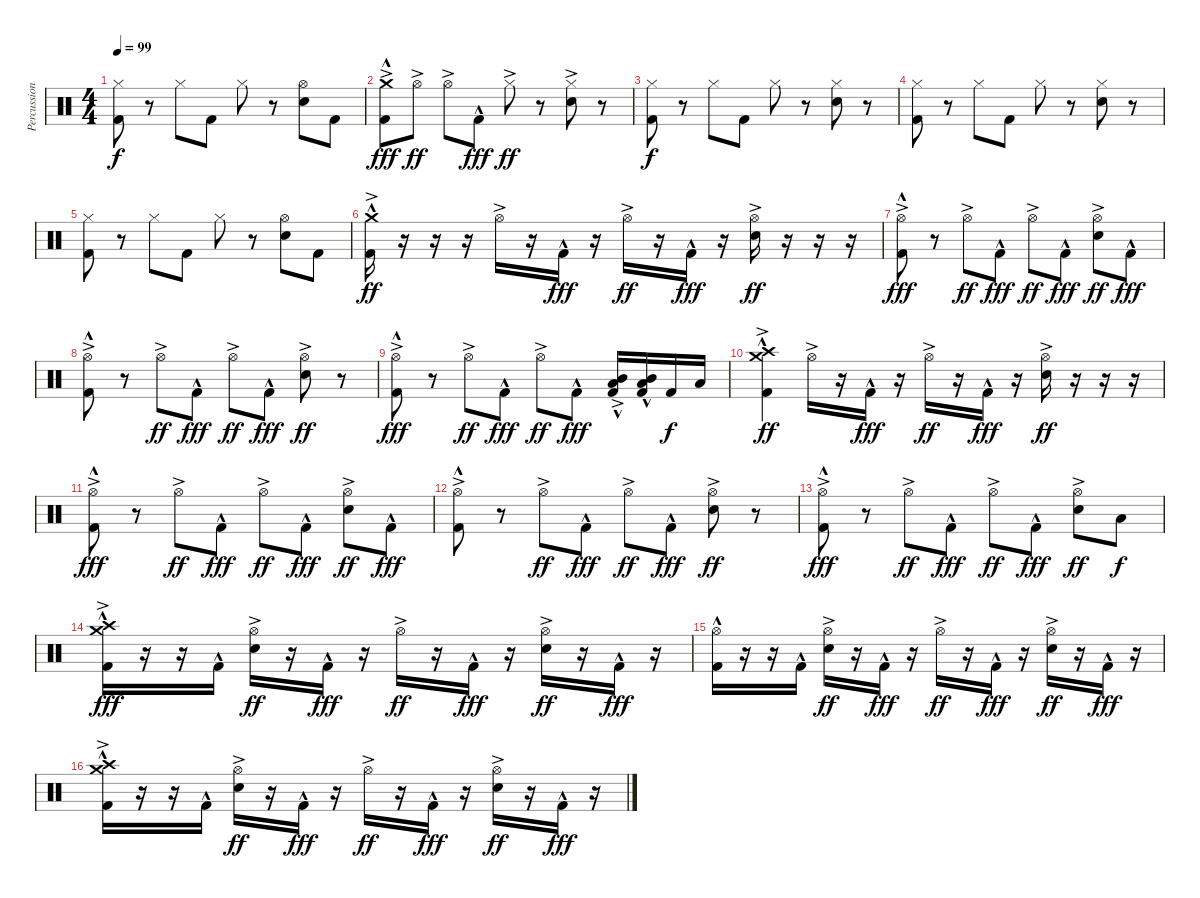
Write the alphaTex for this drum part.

\track ("Percussion" "Percussion") {instrument percussion}
\staff {score}
\articulation defaults
\ts (4 4)
\tempo 99
\clef neutral
\ks c
("Hi-Hat (closed)" "Kick (hit) 2").8{dy f} r.8 "Hi-Hat (closed)".8 "Kick (hit) 2".8 "Hi-Hat (closed)".8 r.8 ("Hi-Hat (open)" "Snare (hit) 2").8 "Kick (hit) 2".8 |
("Crash medium (hit)"{ac} "Kick (hit) 2"{hac}).8{dy fff} "Hi-Hat (open)"{ac}.8{dy ff} "Hi-Hat (open)"{ac}.8 "Kick (hit) 2"{hac}.8{dy fff} "Hi-Hat (closed)"{ac}.8{dy ff} r.8 ("Hi-Hat (closed)"{ac} "Snare (hit) 2"{ac}).8 r.8 |
("Hi-Hat (closed)" "Kick (hit) 2").8{dy f} r.8 "Hi-Hat (closed)".8 "Kick (hit) 2".8 "Hi-Hat (closed)".8 r.8 ("Hi-Hat (closed)" "Snare (hit) 2").8 r.8 |
("Hi-Hat (closed)" "Kick (hit) 2").8 r.8 "Hi-Hat (closed)".8 "Kick (hit) 2".8 "Hi-Hat (closed)".8 r.8 ("Hi-Hat (closed)" "Snare (hit) 2").8 r.8 |
("Hi-Hat (closed)" "Kick (hit) 2").8 r.8 "Hi-Hat (closed)".8 "Kick (hit) 2".8 "Hi-Hat (closed)".8 r.8 ("Hi-Hat (open)" "Snare (hit) 2").8 "Kick (hit) 2".8 |
("Crash medium (hit)"{hac} "Kick (hit) 2"{ac}).16{dy ff} r.16 r.16 r.16 "Hi-Hat (open)"{ac}.16 r.16 "Kick (hit) 2"{hac}.16{dy fff} r.16 "Hi-Hat (open)"{ac}.16{dy ff} r.16 "Kick (hit) 2"{hac}.16{dy fff} r.16 ("Hi-Hat (open)"{ac} "Snare (hit) 2"{ac}).16{dy ff} r.16 r.16 r.16 |
("Hi-Hat (open)"{ac} "Kick (hit) 2"{hac}).8{dy fff} r.8 "Hi-Hat (open)"{ac}.8{dy ff} "Kick (hit) 2"{hac}.8{dy fff} "Hi-Hat (open)"{ac}.8{dy ff} "Kick (hit) 2"{hac}.8{dy fff} ("Hi-Hat (open)"{ac} "Snare (hit) 2"{ac}).8{dy ff} "Kick (hit) 2"{hac}.8{dy fff} |
("Hi-Hat (open)"{ac} "Kick (hit) 2"{hac}).8 r.8 "Hi-Hat (open)"{ac}.8{dy ff} "Kick (hit) 2"{hac}.8{dy fff} "Hi-Hat (open)"{ac}.8{dy ff} "Kick (hit) 2"{hac}.8{dy fff} ("Hi-Hat (open)"{ac} "Snare (hit) 2"{ac}).8{dy ff} r.8 |
("Hi-Hat (open)"{ac} "Kick (hit) 2"{hac}).8{dy fff} r.8 "Hi-Hat (open)"{ac}.8{dy ff} "Kick (hit) 2"{hac}.8{dy fff} "Hi-Hat (open)"{ac}.8{dy ff} "Kick (hit) 2"{hac}.8{dy fff} ("Low Tom (hit)"{ac} "Mid Tom (hit)"{hac} "Kick (hit) 2").16 ("Low Tom (hit)"{hac} "Mid Tom (hit)"{hac} "Kick (hit) 2").16 "Kick (hit) 2".16{dy f} "Low Tom (hit)".16 |
("Crash medium (hit)"{hac} "Crash high (hit)"{hac} "Kick (hit) 2"{ac}).4{dy ff} "Hi-Hat (open)"{ac}.16 r.16 "Kick (hit) 2"{hac}.16{dy fff} r.16 "Hi-Hat (open)"{ac}.16{dy ff} r.16 "Kick (hit) 2"{hac}.16{dy fff} r.16 ("Hi-Hat (open)"{ac} "Snare (hit) 2"{ac}).16{dy ff} r.16 r.16 r.16 |
("Hi-Hat (open)"{ac} "Kick (hit) 2"{hac}).8{dy fff} r.8 "Hi-Hat (open)"{ac}.8{dy ff} "Kick (hit) 2"{hac}.8{dy fff} "Hi-Hat (open)"{ac}.8{dy ff} "Kick (hit) 2"{hac}.8{dy fff} ("Hi-Hat (open)"{ac} "Snare (hit) 2"{ac}).8{dy ff} "Kick (hit) 2"{hac}.8{dy fff} |
("Hi-Hat (open)"{ac} "Kick (hit) 2"{hac}).8 r.8 "Hi-Hat (open)"{ac}.8{dy ff} "Kick (hit) 2"{hac}.8{dy fff} "Hi-Hat (open)"{ac}.8{dy ff} "Kick (hit) 2"{hac}.8{dy fff} ("Hi-Hat (open)"{ac} "Snare (hit) 2"{ac}).8{dy ff} r.8 |
("Hi-Hat (open)"{ac} "Kick (hit) 2"{hac}).8{dy fff} r.8 "Hi-Hat (open)"{ac}.8{dy ff} "Kick (hit) 2"{hac}.8{dy fff} "Hi-Hat (open)"{ac}.8{dy ff} "Kick (hit) 2"{hac}.8{dy fff} ("Hi-Hat (open)"{ac} "Snare (hit) 2"{ac}).8{dy ff} "Low Tom (hit)".8{dy f} |
("Crash medium (hit)"{hac} "Crash high (hit)"{ac} "Kick (hit) 2"{hac}).16{dy fff} r.16 r.16 "Kick (hit) 2"{hac}.16 ("Hi-Hat (open)"{ac} "Snare (hit) 2"{ac}).16{dy ff} r.16 "Kick (hit) 2"{hac}.16{dy fff} r.16 "Hi-Hat (open)"{ac}.16{dy ff} r.16 "Kick (hit) 2"{hac}.16{dy fff} r.16 ("Hi-Hat (open)"{ac} "Snare (hit) 2"{ac}).16{dy ff} r.16 "Kick (hit) 2"{hac}.16{dy fff} r.16 |
("Hi-Hat (open)"{hac} "Kick (hit) 2"{hac}).16 r.16 r.16 "Kick (hit) 2"{hac}.16 ("Hi-Hat (open)"{ac} "Snare (hit) 2"{ac}).16{dy ff} r.16 "Kick (hit) 2"{hac}.16{dy fff} r.16 "Hi-Hat (open)"{ac}.16{dy ff} r.16 "Kick (hit) 2"{hac}.16{dy fff} r.16 ("Hi-Hat (open)"{ac} "Snare (hit) 2"{ac}).16{dy ff} r.16 "Kick (hit) 2"{hac}.16{dy fff} r.16 |
("Crash medium (hit)"{hac} "Crash high (hit)"{ac} "Kick (hit) 2"{hac}).16 r.16 r.16 "Kick (hit) 2"{hac}.16 ("Hi-Hat (open)"{ac} "Snare (hit) 2"{ac}).16{dy ff} r.16 "Kick (hit) 2"{hac}.16{dy fff} r.16 "Hi-Hat (open)"{ac}.16{dy ff} r.16 "Kick (hit) 2"{hac}.16{dy fff} r.16 ("Hi-Hat (open)"{ac} "Snare (hit) 2"{ac}).16{dy ff} r.16 "Kick (hit) 2"{hac}.16{dy fff} r.16
